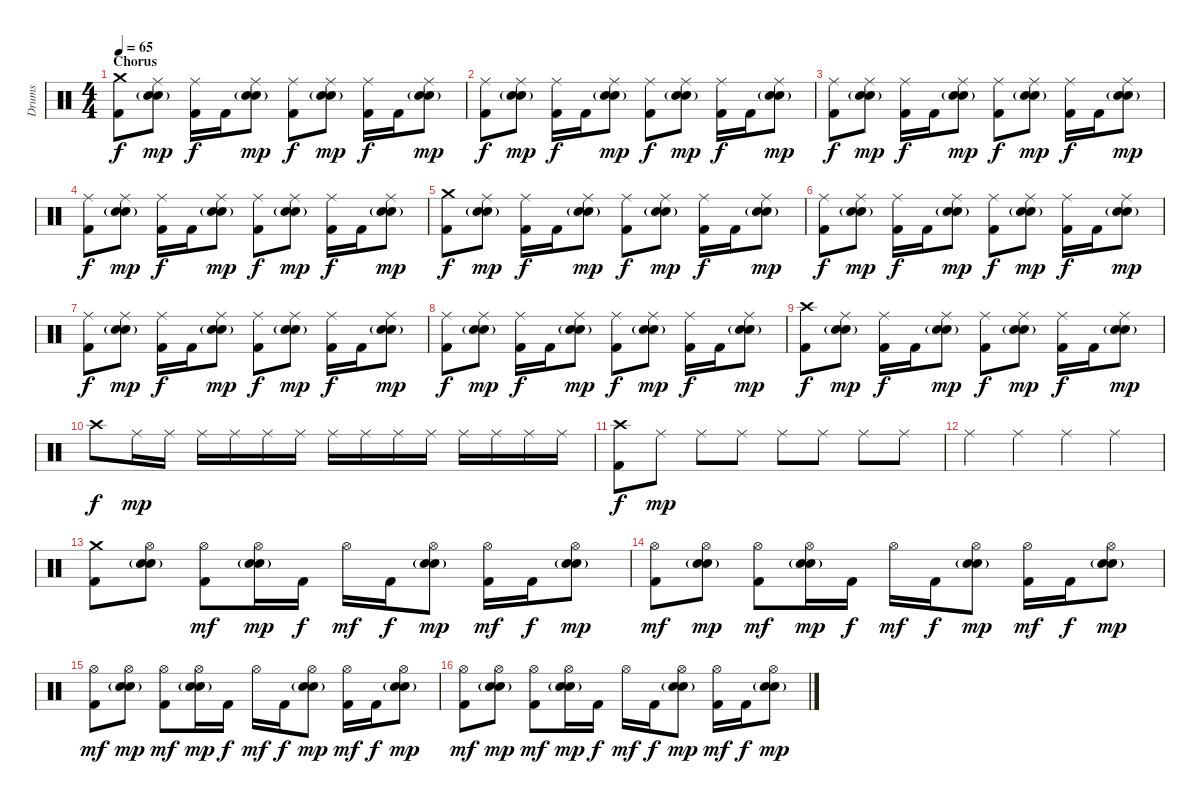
\track ("Drums" "Drums") {instrument percussion}
\staff {score}
\articulation defaults
\ts (4 4)
\section ("" "Chorus")
\tempo 65
\clef neutral
\ks c
("Crash medium (hit)" "Kick (hit) 2").8{dy f} ("Ride (middle)" "Snare (hit) 2"{g} "Electric Snare (hit)").8{dy mp} ("Ride (middle)" "Kick (hit) 2").16{dy f} "Kick (hit) 2".16 ("Ride (middle)" "Snare (hit) 2"{g} "Electric Snare (hit)").8{dy mp} ("Ride (middle)" "Kick (hit) 2").8{dy f} ("Ride (middle)" "Snare (hit) 2"{g} "Electric Snare (hit)").8{dy mp} ("Ride (middle)" "Kick (hit) 2").16{dy f} "Kick (hit) 2".16 ("Ride (middle)" "Snare (hit) 2"{g} "Electric Snare (hit)").8{dy mp} |
("Ride (middle)" "Kick (hit) 2").8{dy f} ("Ride (middle)" "Snare (hit) 2"{g} "Electric Snare (hit)").8{dy mp} ("Ride (middle)" "Kick (hit) 2").16{dy f} "Kick (hit) 2".16 ("Ride (middle)" "Snare (hit) 2"{g} "Electric Snare (hit)").8{dy mp} ("Ride (middle)" "Kick (hit) 2").8{dy f} ("Ride (middle)" "Snare (hit) 2"{g} "Electric Snare (hit)").8{dy mp} ("Ride (middle)" "Kick (hit) 2").16{dy f} "Kick (hit) 2".16 ("Ride (middle)" "Snare (hit) 2"{g} "Electric Snare (hit)").8{dy mp} |
("Ride (middle)" "Kick (hit) 2").8{dy f} ("Ride (middle)" "Snare (hit) 2"{g} "Electric Snare (hit)").8{dy mp} ("Ride (middle)" "Kick (hit) 2").16{dy f} "Kick (hit) 2".16 ("Ride (middle)" "Snare (hit) 2"{g} "Electric Snare (hit)").8{dy mp} ("Ride (middle)" "Kick (hit) 2").8{dy f} ("Ride (middle)" "Snare (hit) 2"{g} "Electric Snare (hit)").8{dy mp} ("Ride (middle)" "Kick (hit) 2").16{dy f} "Kick (hit) 2".16 ("Ride (middle)" "Snare (hit) 2"{g} "Electric Snare (hit)").8{dy mp} |
("Ride (middle)" "Kick (hit) 2").8{dy f} ("Ride (middle)" "Snare (hit) 2"{g} "Electric Snare (hit)").8{dy mp} ("Ride (middle)" "Kick (hit) 2").16{dy f} "Kick (hit) 2".16 ("Ride (middle)" "Snare (hit) 2"{g} "Electric Snare (hit)").8{dy mp} ("Ride (middle)" "Kick (hit) 2").8{dy f} ("Ride (middle)" "Snare (hit) 2"{g} "Electric Snare (hit)").8{dy mp} ("Ride (middle)" "Kick (hit) 2").16{dy f} "Kick (hit) 2".16 ("Ride (middle)" "Snare (hit) 2"{g} "Electric Snare (hit)").8{dy mp} |
("Crash medium (hit)" "Kick (hit) 2").8{dy f} ("Ride (middle)" "Snare (hit) 2"{g} "Electric Snare (hit)").8{dy mp} ("Ride (middle)" "Kick (hit) 2").16{dy f} "Kick (hit) 2".16 ("Ride (middle)" "Snare (hit) 2"{g} "Electric Snare (hit)").8{dy mp} ("Ride (middle)" "Kick (hit) 2").8{dy f} ("Ride (middle)" "Snare (hit) 2"{g} "Electric Snare (hit)").8{dy mp} ("Ride (middle)" "Kick (hit) 2").16{dy f} "Kick (hit) 2".16 ("Ride (middle)" "Snare (hit) 2"{g} "Electric Snare (hit)").8{dy mp} |
("Ride (middle)" "Kick (hit) 2").8{dy f} ("Ride (middle)" "Snare (hit) 2"{g} "Electric Snare (hit)").8{dy mp} ("Ride (middle)" "Kick (hit) 2").16{dy f} "Kick (hit) 2".16 ("Ride (middle)" "Snare (hit) 2"{g} "Electric Snare (hit)").8{dy mp} ("Ride (middle)" "Kick (hit) 2").8{dy f} ("Ride (middle)" "Snare (hit) 2"{g} "Electric Snare (hit)").8{dy mp} ("Ride (middle)" "Kick (hit) 2").16{dy f} "Kick (hit) 2".16 ("Ride (middle)" "Snare (hit) 2"{g} "Electric Snare (hit)").8{dy mp} |
("Ride (middle)" "Kick (hit) 2").8{dy f} ("Ride (middle)" "Snare (hit) 2"{g} "Electric Snare (hit)").8{dy mp} ("Ride (middle)" "Kick (hit) 2").16{dy f} "Kick (hit) 2".16 ("Ride (middle)" "Snare (hit) 2"{g} "Electric Snare (hit)").8{dy mp} ("Ride (middle)" "Kick (hit) 2").8{dy f} ("Ride (middle)" "Snare (hit) 2"{g} "Electric Snare (hit)").8{dy mp} ("Ride (middle)" "Kick (hit) 2").16{dy f} "Kick (hit) 2".16 ("Ride (middle)" "Snare (hit) 2"{g} "Electric Snare (hit)").8{dy mp} |
("Ride (middle)" "Kick (hit) 2").8{dy f} ("Ride (middle)" "Snare (hit) 2"{g} "Electric Snare (hit)").8{dy mp} ("Ride (middle)" "Kick (hit) 2").16{dy f} "Kick (hit) 2".16 ("Ride (middle)" "Snare (hit) 2"{g} "Electric Snare (hit)").8{dy mp} ("Ride (middle)" "Kick (hit) 2").8{dy f} ("Ride (middle)" "Snare (hit) 2"{g} "Electric Snare (hit)").8{dy mp} ("Ride (middle)" "Kick (hit) 2").16{dy f} "Kick (hit) 2".16 ("Ride (middle)" "Snare (hit) 2"{g} "Electric Snare (hit)").8{dy mp} |
("Crash high (hit)" "Kick (hit) 2").8{dy f} ("Ride (middle)" "Snare (hit) 2"{g} "Electric Snare (hit)").8{dy mp} ("Ride (middle)" "Kick (hit) 2").16{dy f} "Kick (hit) 2".16 ("Ride (middle)" "Snare (hit) 2"{g} "Electric Snare (hit)").8{dy mp} ("Ride (middle)" "Kick (hit) 2").8{dy f} ("Ride (middle)" "Snare (hit) 2"{g} "Electric Snare (hit)").8{dy mp} ("Ride (middle)" "Kick (hit) 2").16{dy f} "Kick (hit) 2".16 ("Ride (middle)" "Snare (hit) 2"{g} "Electric Snare (hit)").8{dy mp} |
"Crash high (hit)".8{dy f} "Ride (middle)".16{dy mp} "Ride (middle)".16 "Ride (middle)".16 "Ride (middle)".16 "Ride (middle)".16 "Ride (middle)".16 "Ride (middle)".16 "Ride (middle)".16 "Ride (middle)".16 "Ride (middle)".16 "Ride (middle)".16 "Ride (middle)".16 "Ride (middle)".16 "Ride (middle)".16 |
("Crash high (hit)" "Kick (hit) 2").8{dy f} "Ride (middle)".8{dy mp} "Ride (middle)".8 "Ride (middle)".8 "Ride (middle)".8 "Ride (middle)".8 "Ride (middle)".8 "Ride (middle)".8 |
"Ride (middle)".4 "Ride (middle)".4 "Ride (middle)".4 "Ride (middle)".4 |
("Crash medium (hit)" "Kick (hit) 2").8 ("Hi-Hat (open)" "Snare (hit) 2"{g} "Electric Snare (hit)").8 ("Hi-Hat (open)" "Kick (hit) 2").8{dy mf} ("Hi-Hat (open)" "Snare (hit) 2"{g} "Electric Snare (hit)").16{dy mp} "Kick (hit) 2".16{dy f} "Hi-Hat (open)".16{dy mf} "Kick (hit) 2".16{dy f} ("Hi-Hat (open)" "Snare (hit) 2"{g} "Electric Snare (hit)").8{dy mp} ("Hi-Hat (open)" "Kick (hit) 2").16{dy mf} "Kick (hit) 2".16{dy f} ("Hi-Hat (open)" "Snare (hit) 2"{g} "Electric Snare (hit)").8{dy mp} |
("Hi-Hat (open)" "Kick (hit) 2").8{dy mf} ("Hi-Hat (open)" "Snare (hit) 2"{g} "Electric Snare (hit)").8{dy mp} ("Hi-Hat (open)" "Kick (hit) 2").8{dy mf} ("Hi-Hat (open)" "Snare (hit) 2"{g} "Electric Snare (hit)").16{dy mp} "Kick (hit) 2".16{dy f} "Hi-Hat (open)".16{dy mf} "Kick (hit) 2".16{dy f} ("Hi-Hat (open)" "Snare (hit) 2"{g} "Electric Snare (hit)").8{dy mp} ("Hi-Hat (open)" "Kick (hit) 2").16{dy mf} "Kick (hit) 2".16{dy f} ("Hi-Hat (open)" "Snare (hit) 2"{g} "Electric Snare (hit)").8{dy mp} |
("Hi-Hat (open)" "Kick (hit) 2").8{dy mf} ("Hi-Hat (open)" "Snare (hit) 2"{g} "Electric Snare (hit)").8{dy mp} ("Hi-Hat (open)" "Kick (hit) 2").8{dy mf} ("Hi-Hat (open)" "Snare (hit) 2"{g} "Electric Snare (hit)").16{dy mp} "Kick (hit) 2".16{dy f} "Hi-Hat (open)".16{dy mf} "Kick (hit) 2".16{dy f} ("Hi-Hat (open)" "Snare (hit) 2"{g} "Electric Snare (hit)").8{dy mp} ("Hi-Hat (open)" "Kick (hit) 2").16{dy mf} "Kick (hit) 2".16{dy f} ("Hi-Hat (open)" "Snare (hit) 2"{g} "Electric Snare (hit)").8{dy mp} |
("Hi-Hat (open)" "Kick (hit) 2").8{dy mf} ("Hi-Hat (open)" "Snare (hit) 2"{g} "Electric Snare (hit)").8{dy mp} ("Hi-Hat (open)" "Kick (hit) 2").8{dy mf} ("Hi-Hat (open)" "Snare (hit) 2"{g} "Electric Snare (hit)").16{dy mp} "Kick (hit) 2".16{dy f} "Hi-Hat (open)".16{dy mf} "Kick (hit) 2".16{dy f} ("Hi-Hat (open)" "Snare (hit) 2"{g} "Electric Snare (hit)").8{dy mp} ("Hi-Hat (open)" "Kick (hit) 2").16{dy mf} "Kick (hit) 2".16{dy f} ("Hi-Hat (open)" "Snare (hit) 2"{g} "Electric Snare (hit)").8{dy mp}
